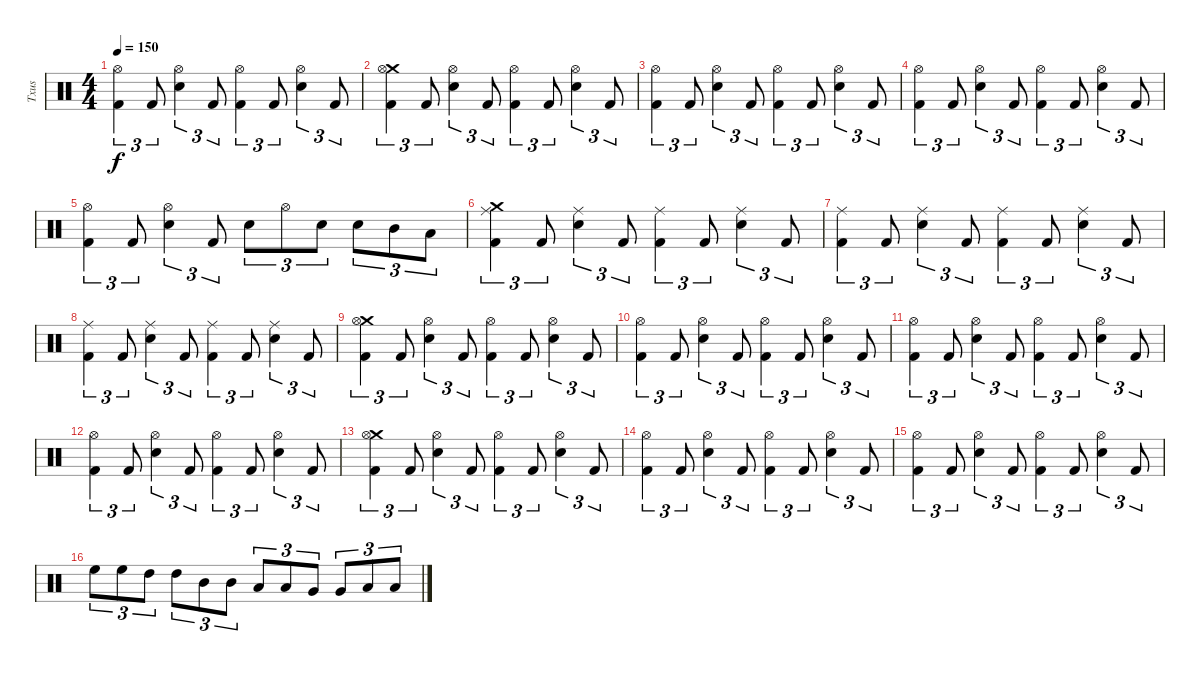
\track ("Txus" "Txus") {instrument percussion}
\staff {score}
\articulation defaults
\ts (4 4)
\tempo 150
\clef neutral
\ks c
("Hi-Hat (open)" "Kick (hit) 2").4{tu (3 2) dy f} "Kick (hit) 2".8{tu (3 2)} ("Hi-Hat (open)" "Electric Snare (hit)").4{tu (3 2)} "Kick (hit) 2".8{tu (3 2)} ("Hi-Hat (open)" "Kick (hit) 2").4{tu (3 2)} "Kick (hit) 2".8{tu (3 2)} ("Hi-Hat (open)" "Electric Snare (hit)").4{tu (3 2)} "Kick (hit) 2".8{tu (3 2)} |
("Crash medium (hit)" "Hi-Hat (open)" "Kick (hit) 2").4{tu (3 2)} "Kick (hit) 2".8{tu (3 2)} ("Hi-Hat (open)" "Electric Snare (hit)").4{tu (3 2)} "Kick (hit) 2".8{tu (3 2)} ("Hi-Hat (open)" "Kick (hit) 2").4{tu (3 2)} "Kick (hit) 2".8{tu (3 2)} ("Hi-Hat (open)" "Electric Snare (hit)").4{tu (3 2)} "Kick (hit) 2".8{tu (3 2)} |
("Hi-Hat (open)" "Kick (hit) 2").4{tu (3 2)} "Kick (hit) 2".8{tu (3 2)} ("Hi-Hat (open)" "Electric Snare (hit)").4{tu (3 2)} "Kick (hit) 2".8{tu (3 2)} ("Hi-Hat (open)" "Kick (hit) 2").4{tu (3 2)} "Kick (hit) 2".8{tu (3 2)} ("Hi-Hat (open)" "Electric Snare (hit)").4{tu (3 2)} "Kick (hit) 2".8{tu (3 2)} |
("Hi-Hat (open)" "Kick (hit) 2").4{tu (3 2)} "Kick (hit) 2".8{tu (3 2)} ("Hi-Hat (open)" "Electric Snare (hit)").4{tu (3 2)} "Kick (hit) 2".8{tu (3 2)} ("Hi-Hat (open)" "Kick (hit) 2").4{tu (3 2)} "Kick (hit) 2".8{tu (3 2)} ("Hi-Hat (open)" "Electric Snare (hit)").4{tu (3 2)} "Kick (hit) 2".8{tu (3 2)} |
("Hi-Hat (open)" "Kick (hit) 2").4{tu (3 2)} "Kick (hit) 2".8{tu (3 2)} ("Hi-Hat (open)" "Electric Snare (hit)").4{tu (3 2)} "Kick (hit) 2".8{tu (3 2)} "Electric Snare (hit)".8{tu (3 2)} "Hi-Hat (open)".8{tu (3 2)} "Electric Snare (hit)".8{tu (3 2)} "Electric Snare (hit)".8{tu (3 2)} "Mid Tom (hit)".8{tu (3 2)} "Low Tom (hit)".8{tu (3 2)} |
("Crash medium (hit)" "Ride (middle)" "Kick (hit) 2").4{tu (3 2)} "Kick (hit) 2".8{tu (3 2)} ("Ride (middle)" "Electric Snare (hit)").4{tu (3 2)} "Kick (hit) 2".8{tu (3 2)} ("Ride (middle)" "Kick (hit) 2").4{tu (3 2)} "Kick (hit) 2".8{tu (3 2)} ("Ride (middle)" "Electric Snare (hit)").4{tu (3 2)} "Kick (hit) 2".8{tu (3 2)} |
("Ride (middle)" "Kick (hit) 2").4{tu (3 2)} "Kick (hit) 2".8{tu (3 2)} ("Ride (middle)" "Electric Snare (hit)").4{tu (3 2)} "Kick (hit) 2".8{tu (3 2)} ("Ride (middle)" "Kick (hit) 2").4{tu (3 2)} "Kick (hit) 2".8{tu (3 2)} ("Ride (middle)" "Electric Snare (hit)").4{tu (3 2)} "Kick (hit) 2".8{tu (3 2)} |
("Ride (middle)" "Kick (hit) 2").4{tu (3 2)} "Kick (hit) 2".8{tu (3 2)} ("Ride (middle)" "Electric Snare (hit)").4{tu (3 2)} "Kick (hit) 2".8{tu (3 2)} ("Ride (middle)" "Kick (hit) 2").4{tu (3 2)} "Kick (hit) 2".8{tu (3 2)} ("Ride (middle)" "Electric Snare (hit)").4{tu (3 2)} "Kick (hit) 2".8{tu (3 2)} |
("Crash medium (hit)" "Hi-Hat (open)" "Kick (hit) 2").4{tu (3 2)} "Kick (hit) 2".8{tu (3 2)} ("Hi-Hat (open)" "Electric Snare (hit)").4{tu (3 2)} "Kick (hit) 2".8{tu (3 2)} ("Hi-Hat (open)" "Kick (hit) 2").4{tu (3 2)} "Kick (hit) 2".8{tu (3 2)} ("Hi-Hat (open)" "Electric Snare (hit)").4{tu (3 2)} "Kick (hit) 2".8{tu (3 2)} |
("Hi-Hat (open)" "Kick (hit) 2").4{tu (3 2)} "Kick (hit) 2".8{tu (3 2)} ("Hi-Hat (open)" "Electric Snare (hit)").4{tu (3 2)} "Kick (hit) 2".8{tu (3 2)} ("Hi-Hat (open)" "Kick (hit) 2").4{tu (3 2)} "Kick (hit) 2".8{tu (3 2)} ("Hi-Hat (open)" "Electric Snare (hit)").4{tu (3 2)} "Kick (hit) 2".8{tu (3 2)} |
("Hi-Hat (open)" "Kick (hit) 2").4{tu (3 2)} "Kick (hit) 2".8{tu (3 2)} ("Hi-Hat (open)" "Electric Snare (hit)").4{tu (3 2)} "Kick (hit) 2".8{tu (3 2)} ("Hi-Hat (open)" "Kick (hit) 2").4{tu (3 2)} "Kick (hit) 2".8{tu (3 2)} ("Hi-Hat (open)" "Electric Snare (hit)").4{tu (3 2)} "Kick (hit) 2".8{tu (3 2)} |
("Hi-Hat (open)" "Kick (hit) 2").4{tu (3 2)} "Kick (hit) 2".8{tu (3 2)} ("Hi-Hat (open)" "Electric Snare (hit)").4{tu (3 2)} "Kick (hit) 2".8{tu (3 2)} ("Hi-Hat (open)" "Kick (hit) 2").4{tu (3 2)} "Kick (hit) 2".8{tu (3 2)} ("Hi-Hat (open)" "Electric Snare (hit)").4{tu (3 2)} "Kick (hit) 2".8{tu (3 2)} |
("Crash medium (hit)" "Hi-Hat (open)" "Kick (hit) 2").4{tu (3 2)} "Kick (hit) 2".8{tu (3 2)} ("Hi-Hat (open)" "Electric Snare (hit)").4{tu (3 2)} "Kick (hit) 2".8{tu (3 2)} ("Hi-Hat (open)" "Kick (hit) 2").4{tu (3 2)} "Kick (hit) 2".8{tu (3 2)} ("Hi-Hat (open)" "Electric Snare (hit)").4{tu (3 2)} "Kick (hit) 2".8{tu (3 2)} |
("Hi-Hat (open)" "Kick (hit) 2").4{tu (3 2)} "Kick (hit) 2".8{tu (3 2)} ("Hi-Hat (open)" "Electric Snare (hit)").4{tu (3 2)} "Kick (hit) 2".8{tu (3 2)} ("Hi-Hat (open)" "Kick (hit) 2").4{tu (3 2)} "Kick (hit) 2".8{tu (3 2)} ("Hi-Hat (open)" "Electric Snare (hit)").4{tu (3 2)} "Kick (hit) 2".8{tu (3 2)} |
("Hi-Hat (open)" "Kick (hit) 2").4{tu (3 2)} "Kick (hit) 2".8{tu (3 2)} ("Hi-Hat (open)" "Electric Snare (hit)").4{tu (3 2)} "Kick (hit) 2".8{tu (3 2)} ("Hi-Hat (open)" "Kick (hit) 2").4{tu (3 2)} "Kick (hit) 2".8{tu (3 2)} ("Hi-Hat (open)" "Electric Snare (hit)").4{tu (3 2)} "Kick (hit) 2".8{tu (3 2)} |
"High Floor Tom (hit)".8{tu (3 2)} "High Floor Tom (hit)".8{tu (3 2)} "High Tom (hit)".8{tu (3 2)} "High Tom (hit)".8{tu (3 2)} "Mid Tom (hit)".8{tu (3 2)} "Mid Tom (hit)".8{tu (3 2)} "Low Tom (hit)".8{tu (3 2)} "Low Tom (hit)".8{tu (3 2)} "Very Low Tom (hit)".8{tu (3 2)} "Very Low Tom (hit)".8{tu (3 2)} "Low Floor Tom (hit)".8{tu (3 2)} "Low Floor Tom (hit)".8{tu (3 2)}
